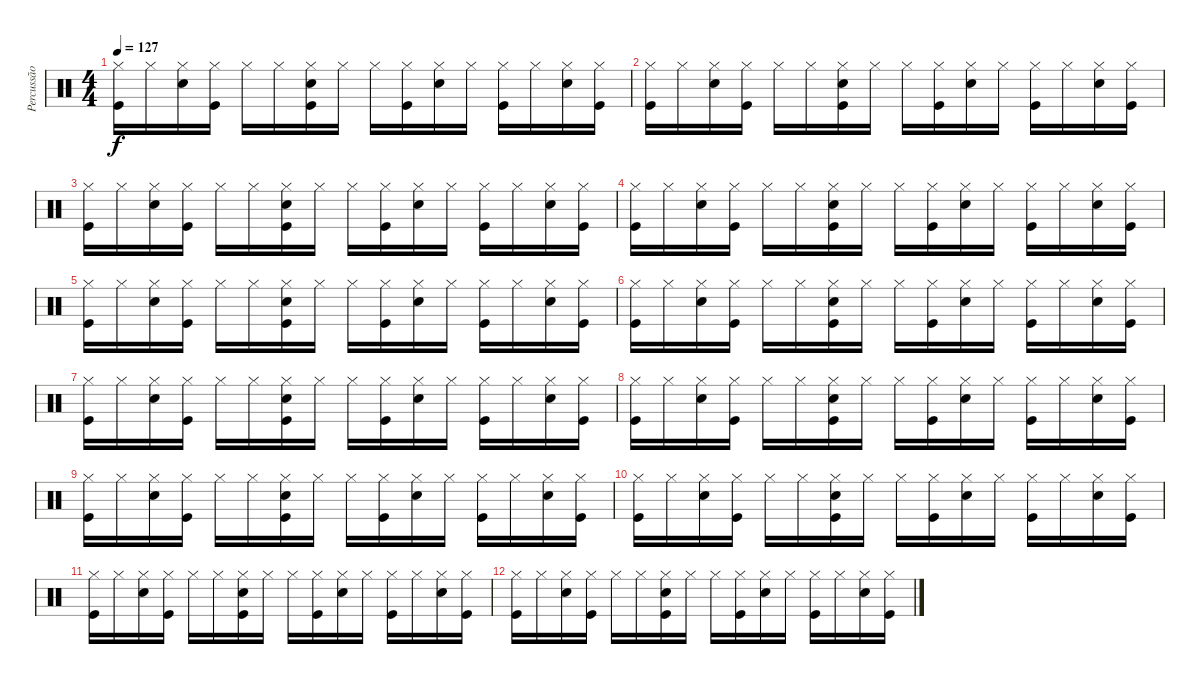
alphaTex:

\track ("Percussão" "Percussão") {instrument percussion}
\staff {score}
\articulation defaults
\ts (4 4)
\tempo 127
\clef neutral
\ks c
("Kick (hit)" "Hi-Hat (closed)").16{dy f} "Hi-Hat (closed)".16 ("Hi-Hat (closed)" "Snare (hit) 2").16 ("Kick (hit)" "Hi-Hat (closed)").16 "Hi-Hat (closed)".16 "Hi-Hat (closed)".16 ("Kick (hit)" "Hi-Hat (closed)" "Snare (hit) 2").16 "Hi-Hat (closed)".16 "Hi-Hat (closed)".16 ("Kick (hit)" "Hi-Hat (closed)").16 ("Hi-Hat (closed)" "Snare (hit) 2").16 "Hi-Hat (closed)".16 ("Kick (hit)" "Hi-Hat (closed)").16 "Hi-Hat (closed)".16 ("Hi-Hat (closed)" "Snare (hit) 2").16 ("Kick (hit)" "Hi-Hat (closed)").16 |
("Kick (hit)" "Hi-Hat (closed)").16 "Hi-Hat (closed)".16 ("Hi-Hat (closed)" "Snare (hit) 2").16 ("Kick (hit)" "Hi-Hat (closed)").16 "Hi-Hat (closed)".16 "Hi-Hat (closed)".16 ("Kick (hit)" "Hi-Hat (closed)" "Snare (hit) 2").16 "Hi-Hat (closed)".16 "Hi-Hat (closed)".16 ("Kick (hit)" "Hi-Hat (closed)").16 ("Hi-Hat (closed)" "Snare (hit) 2").16 "Hi-Hat (closed)".16 ("Kick (hit)" "Hi-Hat (closed)").16 "Hi-Hat (closed)".16 ("Hi-Hat (closed)" "Snare (hit) 2").16 ("Kick (hit)" "Hi-Hat (closed)").16 |
("Kick (hit)" "Hi-Hat (closed)").16 "Hi-Hat (closed)".16 ("Hi-Hat (closed)" "Snare (hit) 2").16 ("Kick (hit)" "Hi-Hat (closed)").16 "Hi-Hat (closed)".16 "Hi-Hat (closed)".16 ("Kick (hit)" "Hi-Hat (closed)" "Snare (hit) 2").16 "Hi-Hat (closed)".16 "Hi-Hat (closed)".16 ("Kick (hit)" "Hi-Hat (closed)").16 ("Hi-Hat (closed)" "Snare (hit) 2").16 "Hi-Hat (closed)".16 ("Kick (hit)" "Hi-Hat (closed)").16 "Hi-Hat (closed)".16 ("Hi-Hat (closed)" "Snare (hit) 2").16 ("Kick (hit)" "Hi-Hat (closed)").16 |
("Kick (hit)" "Hi-Hat (closed)").16 "Hi-Hat (closed)".16 ("Hi-Hat (closed)" "Snare (hit) 2").16 ("Kick (hit)" "Hi-Hat (closed)").16 "Hi-Hat (closed)".16 "Hi-Hat (closed)".16 ("Kick (hit)" "Hi-Hat (closed)" "Snare (hit) 2").16 "Hi-Hat (closed)".16 "Hi-Hat (closed)".16 ("Kick (hit)" "Hi-Hat (closed)").16 ("Hi-Hat (closed)" "Snare (hit) 2").16 "Hi-Hat (closed)".16 ("Kick (hit)" "Hi-Hat (closed)").16 "Hi-Hat (closed)".16 ("Hi-Hat (closed)" "Snare (hit) 2").16 ("Kick (hit)" "Hi-Hat (closed)").16 |
("Kick (hit)" "Hi-Hat (closed)").16 "Hi-Hat (closed)".16 ("Hi-Hat (closed)" "Snare (hit) 2").16 ("Kick (hit)" "Hi-Hat (closed)").16 "Hi-Hat (closed)".16 "Hi-Hat (closed)".16 ("Kick (hit)" "Hi-Hat (closed)" "Snare (hit) 2").16 "Hi-Hat (closed)".16 "Hi-Hat (closed)".16 ("Kick (hit)" "Hi-Hat (closed)").16 ("Hi-Hat (closed)" "Snare (hit) 2").16 "Hi-Hat (closed)".16 ("Kick (hit)" "Hi-Hat (closed)").16 "Hi-Hat (closed)".16 ("Hi-Hat (closed)" "Snare (hit) 2").16 ("Kick (hit)" "Hi-Hat (closed)").16 |
("Kick (hit)" "Hi-Hat (closed)").16 "Hi-Hat (closed)".16 ("Hi-Hat (closed)" "Snare (hit) 2").16 ("Kick (hit)" "Hi-Hat (closed)").16 "Hi-Hat (closed)".16 "Hi-Hat (closed)".16 ("Kick (hit)" "Hi-Hat (closed)" "Snare (hit) 2").16 "Hi-Hat (closed)".16 "Hi-Hat (closed)".16 ("Kick (hit)" "Hi-Hat (closed)").16 ("Hi-Hat (closed)" "Snare (hit) 2").16 "Hi-Hat (closed)".16 ("Kick (hit)" "Hi-Hat (closed)").16 "Hi-Hat (closed)".16 ("Hi-Hat (closed)" "Snare (hit) 2").16 ("Kick (hit)" "Hi-Hat (closed)").16 |
("Kick (hit)" "Hi-Hat (closed)").16 "Hi-Hat (closed)".16 ("Hi-Hat (closed)" "Snare (hit) 2").16 ("Kick (hit)" "Hi-Hat (closed)").16 "Hi-Hat (closed)".16 "Hi-Hat (closed)".16 ("Kick (hit)" "Hi-Hat (closed)" "Snare (hit) 2").16 "Hi-Hat (closed)".16 "Hi-Hat (closed)".16 ("Kick (hit)" "Hi-Hat (closed)").16 ("Hi-Hat (closed)" "Snare (hit) 2").16 "Hi-Hat (closed)".16 ("Kick (hit)" "Hi-Hat (closed)").16 "Hi-Hat (closed)".16 ("Hi-Hat (closed)" "Snare (hit) 2").16 ("Kick (hit)" "Hi-Hat (closed)").16 |
("Kick (hit)" "Hi-Hat (closed)").16 "Hi-Hat (closed)".16 ("Hi-Hat (closed)" "Snare (hit) 2").16 ("Kick (hit)" "Hi-Hat (closed)").16 "Hi-Hat (closed)".16 "Hi-Hat (closed)".16 ("Kick (hit)" "Hi-Hat (closed)" "Snare (hit) 2").16 "Hi-Hat (closed)".16 "Hi-Hat (closed)".16 ("Kick (hit)" "Hi-Hat (closed)").16 ("Hi-Hat (closed)" "Snare (hit) 2").16 "Hi-Hat (closed)".16 ("Kick (hit)" "Hi-Hat (closed)").16 "Hi-Hat (closed)".16 ("Hi-Hat (closed)" "Snare (hit) 2").16 ("Kick (hit)" "Hi-Hat (closed)").16 |
("Kick (hit)" "Hi-Hat (closed)").16 "Hi-Hat (closed)".16 ("Hi-Hat (closed)" "Snare (hit) 2").16 ("Kick (hit)" "Hi-Hat (closed)").16 "Hi-Hat (closed)".16 "Hi-Hat (closed)".16 ("Kick (hit)" "Hi-Hat (closed)" "Snare (hit) 2").16 "Hi-Hat (closed)".16 "Hi-Hat (closed)".16 ("Kick (hit)" "Hi-Hat (closed)").16 ("Hi-Hat (closed)" "Snare (hit) 2").16 "Hi-Hat (closed)".16 ("Kick (hit)" "Hi-Hat (closed)").16 "Hi-Hat (closed)".16 ("Hi-Hat (closed)" "Snare (hit) 2").16 ("Kick (hit)" "Hi-Hat (closed)").16 |
("Kick (hit)" "Hi-Hat (closed)").16 "Hi-Hat (closed)".16 ("Hi-Hat (closed)" "Snare (hit) 2").16 ("Kick (hit)" "Hi-Hat (closed)").16 "Hi-Hat (closed)".16 "Hi-Hat (closed)".16 ("Kick (hit)" "Hi-Hat (closed)" "Snare (hit) 2").16 "Hi-Hat (closed)".16 "Hi-Hat (closed)".16 ("Kick (hit)" "Hi-Hat (closed)").16 ("Hi-Hat (closed)" "Snare (hit) 2").16 "Hi-Hat (closed)".16 ("Kick (hit)" "Hi-Hat (closed)").16 "Hi-Hat (closed)".16 ("Hi-Hat (closed)" "Snare (hit) 2").16 ("Kick (hit)" "Hi-Hat (closed)").16 |
("Kick (hit)" "Hi-Hat (closed)").16 "Hi-Hat (closed)".16 ("Hi-Hat (closed)" "Snare (hit) 2").16 ("Kick (hit)" "Hi-Hat (closed)").16 "Hi-Hat (closed)".16 "Hi-Hat (closed)".16 ("Kick (hit)" "Hi-Hat (closed)" "Snare (hit) 2").16 "Hi-Hat (closed)".16 "Hi-Hat (closed)".16 ("Kick (hit)" "Hi-Hat (closed)").16 ("Hi-Hat (closed)" "Snare (hit) 2").16 "Hi-Hat (closed)".16 ("Kick (hit)" "Hi-Hat (closed)").16 "Hi-Hat (closed)".16 ("Hi-Hat (closed)" "Snare (hit) 2").16 ("Kick (hit)" "Hi-Hat (closed)").16 |
("Kick (hit)" "Hi-Hat (closed)").16 "Hi-Hat (closed)".16 ("Hi-Hat (closed)" "Snare (hit) 2").16{volume 0} ("Kick (hit)" "Hi-Hat (closed)").16 "Hi-Hat (closed)".16 "Hi-Hat (closed)".16 ("Kick (hit)" "Hi-Hat (closed)" "Snare (hit) 2").16 "Hi-Hat (closed)".16 "Hi-Hat (closed)".16 ("Kick (hit)" "Hi-Hat (closed)").16 ("Hi-Hat (closed)" "Snare (hit) 2").16 "Hi-Hat (closed)".16 ("Kick (hit)" "Hi-Hat (closed)").16 "Hi-Hat (closed)".16 ("Hi-Hat (closed)" "Snare (hit) 2").16 ("Kick (hit)" "Hi-Hat (closed)").16
